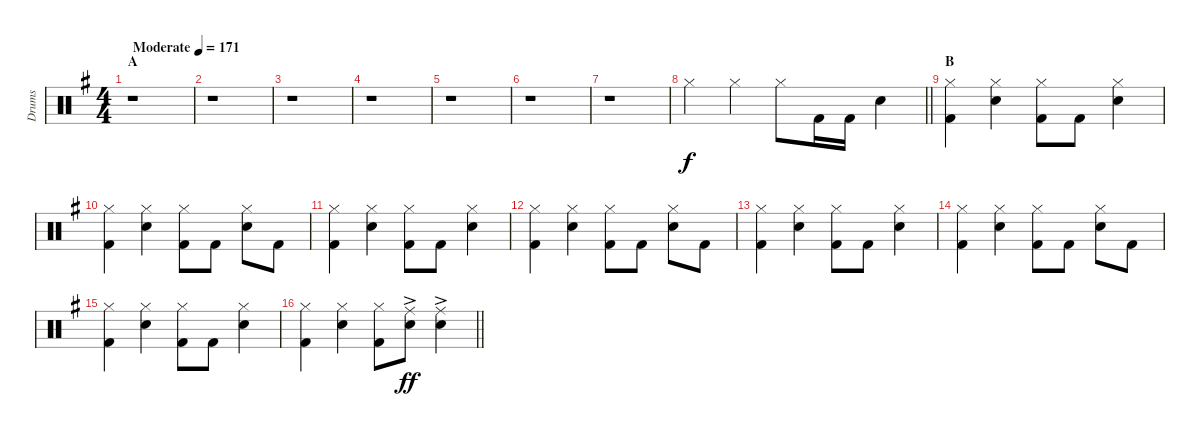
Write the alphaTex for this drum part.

\track ("Drums" "Drums") {instrument percussion}
\staff {score}
\articulation defaults
\ts (4 4)
\section ("" "A")
\tempo (171 "Moderate")
\clef neutral
\ks g
r.1{dy f} |
r.1 |
r.1 |
r.1 |
r.1 |
r.1 |
r.1 |
\barLineRight lightlight "Hi-Hat (closed)".4 "Hi-Hat (closed)".4 "Hi-Hat (closed)".8 "Kick (hit) 2".16 "Kick (hit) 2".16 "Snare (hit) 2".4
|
\section ("" "B")
("Hi-Hat (closed)" "Kick (hit) 2").4 ("Hi-Hat (closed)" "Snare (hit) 2").4 ("Hi-Hat (closed)" "Kick (hit) 2").8 "Kick (hit) 2".8 ("Hi-Hat (closed)" "Snare (hit) 2").4 |
("Hi-Hat (closed)" "Kick (hit) 2").4 ("Hi-Hat (closed)" "Snare (hit) 2").4 ("Hi-Hat (closed)" "Kick (hit) 2").8 "Kick (hit) 2".8 ("Hi-Hat (closed)" "Snare (hit) 2").8 "Kick (hit) 2".8 |
("Hi-Hat (closed)" "Kick (hit) 2").4 ("Hi-Hat (closed)" "Snare (hit) 2").4 ("Hi-Hat (closed)" "Kick (hit) 2").8 "Kick (hit) 2".8 ("Hi-Hat (closed)" "Snare (hit) 2").4 |
("Hi-Hat (closed)" "Kick (hit) 2").4 ("Hi-Hat (closed)" "Snare (hit) 2").4 ("Hi-Hat (closed)" "Kick (hit) 2").8 "Kick (hit) 2".8 ("Hi-Hat (closed)" "Snare (hit) 2").8 "Kick (hit) 2".8 |
("Hi-Hat (closed)" "Kick (hit) 2").4 ("Hi-Hat (closed)" "Snare (hit) 2").4 ("Hi-Hat (closed)" "Kick (hit) 2").8 "Kick (hit) 2".8 ("Hi-Hat (closed)" "Snare (hit) 2").4 |
("Hi-Hat (closed)" "Kick (hit) 2").4 ("Hi-Hat (closed)" "Snare (hit) 2").4 ("Hi-Hat (closed)" "Kick (hit) 2").8 "Kick (hit) 2".8 ("Hi-Hat (closed)" "Snare (hit) 2").8 "Kick (hit) 2".8 |
("Hi-Hat (closed)" "Kick (hit) 2").4 ("Hi-Hat (closed)" "Snare (hit) 2").4 ("Hi-Hat (closed)" "Kick (hit) 2").8 "Kick (hit) 2".8 ("Hi-Hat (closed)" "Snare (hit) 2").4 |
\barLineRight lightlight
("Hi-Hat (closed)" "Kick (hit) 2").4 ("Hi-Hat (closed)" "Snare (hit) 2").4 ("Hi-Hat (closed)" "Kick (hit) 2").8 ("Ride (middle)"{ac} "Snare (hit) 2").8{dy ff} ("Ride (middle)"{ac} "Snare (hit) 2").4
